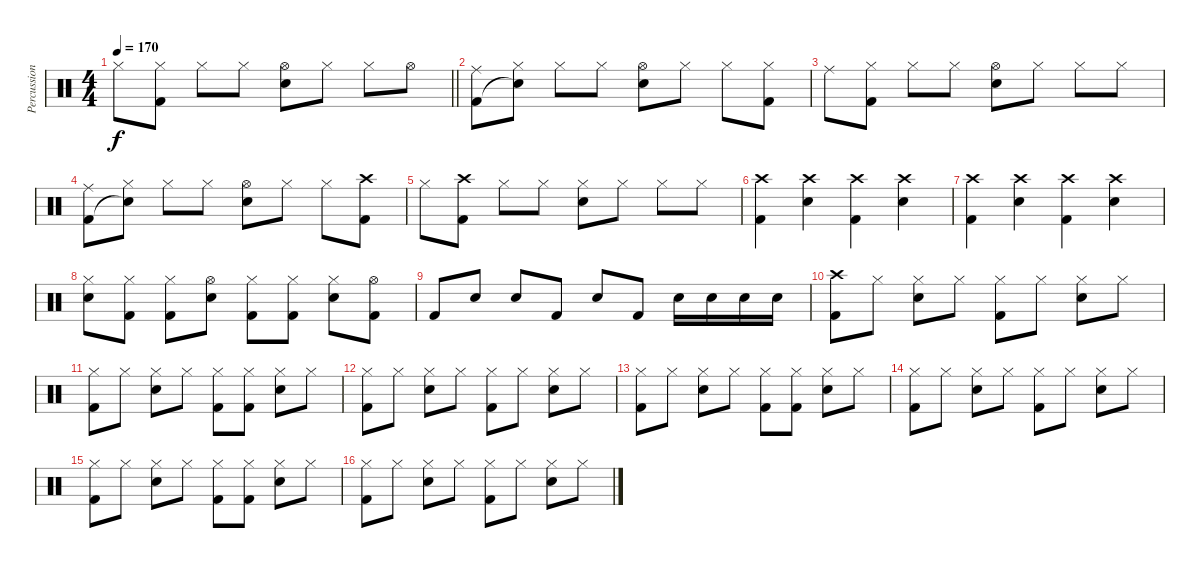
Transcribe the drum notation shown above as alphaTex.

\track ("Percussion" "Percussion") {instrument percussion}
\staff {score}
\articulation defaults
\ts (4 4)
\tempo 170
\clef neutral
\barLineRight lightlight
\ks c "Hi-Hat (closed)".8{dy f}
("Hi-Hat (closed)" "Kick (hit) 2").8 "Hi-Hat (closed)".8 "Hi-Hat (closed)".8 ("Hi-Hat (open)" "Snare (hit) 2").8 "Hi-Hat (closed)".8 "Hi-Hat (closed)".8 "Hi-Hat (open)".8 |
("Ride (middle)" "Kick (hit) 2").8 ("Hi-Hat (closed)" "Snare (hit)"{t}).8 "Hi-Hat (closed)".8 "Hi-Hat (closed)".8 ("Hi-Hat (open)" "Snare (hit) 2").8 "Hi-Hat (closed)".8 "Hi-Hat (closed)".8 ("Hi-Hat (closed)" "Kick (hit) 2").8 |
"Ride (middle)".8 ("Hi-Hat (closed)" "Kick (hit) 2").8 "Hi-Hat (closed)".8 "Hi-Hat (closed)".8 ("Hi-Hat (open)" "Snare (hit) 2").8 "Hi-Hat (closed)".8 "Hi-Hat (closed)".8 "Hi-Hat (closed)".8 |
("Ride (middle)" "Kick (hit) 2").8 ("Hi-Hat (closed)" "Snare (hit)"{t}).8 "Hi-Hat (closed)".8 "Hi-Hat (closed)".8 ("Hi-Hat (open)" "Snare (hit) 2").8 "Hi-Hat (closed)".8 "Hi-Hat (closed)".8 ("Crash high (hit)" "Kick (hit) 2").8 |
"Hi-Hat (closed)".8 ("Crash high (hit)" "Kick (hit) 2").8 "Hi-Hat (closed)".8 "Hi-Hat (closed)".8 ("Hi-Hat (closed)" "Snare (hit) 2").8 "Hi-Hat (closed)".8 "Hi-Hat (closed)".8 "Hi-Hat (closed)".8 |
("Crash high (hit)" "Kick (hit) 2").4 ("Crash high (hit)" "Snare (hit) 2").4 ("Crash high (hit)" "Kick (hit) 2").4 ("Crash high (hit)" "Snare (hit) 2").4 |
("Crash high (hit)" "Kick (hit) 2").4 ("Crash high (hit)" "Snare (hit) 2").4 ("Crash high (hit)" "Kick (hit) 2").4 ("Crash high (hit)" "Snare (hit) 2").4 |
("Snare (hit) 2" "Hi-Hat (closed)").8 ("Kick (hit) 2" "Hi-Hat (closed)").8 ("Kick (hit) 2" "Hi-Hat (closed)").8 ("Snare (hit) 2" "Hi-Hat (open)").8 ("Kick (hit) 2" "Hi-Hat (closed)").8 ("Kick (hit) 2" "Hi-Hat (closed)").8 ("Snare (hit) 2" "Hi-Hat (closed)").8 ("Kick (hit) 2" "Hi-Hat (open)").8 |
"Kick (hit) 2".8 "Snare (hit) 2".8 "Snare (hit) 2".8 "Kick (hit) 2".8 "Snare (hit) 2".8 "Kick (hit) 2".8 "Snare (hit) 2".16 "Snare (hit) 2".16 "Snare (hit) 2".16 "Snare (hit) 2".16 |
("Crash high (hit)" "Kick (hit) 2").8 "Hi-Hat (closed)".8 ("Hi-Hat (closed)" "Snare (hit) 2").8 "Hi-Hat (closed)".8 ("Hi-Hat (closed)" "Kick (hit) 2").8 "Hi-Hat (closed)".8 ("Hi-Hat (closed)" "Snare (hit) 2").8 "Hi-Hat (closed)".8 |
("Hi-Hat (closed)" "Kick (hit) 2").8 "Hi-Hat (closed)".8 ("Hi-Hat (closed)" "Snare (hit) 2").8 "Hi-Hat (closed)".8 ("Hi-Hat (closed)" "Kick (hit) 2").8 ("Hi-Hat (closed)" "Kick (hit) 2").8 ("Hi-Hat (closed)" "Snare (hit) 2").8 "Hi-Hat (closed)".8 |
("Hi-Hat (closed)" "Kick (hit) 2").8 "Hi-Hat (closed)".8 ("Hi-Hat (closed)" "Snare (hit) 2").8 "Hi-Hat (closed)".8 ("Hi-Hat (closed)" "Kick (hit) 2").8 "Hi-Hat (closed)".8 ("Hi-Hat (closed)" "Snare (hit) 2").8 "Hi-Hat (closed)".8 |
("Hi-Hat (closed)" "Kick (hit) 2").8 "Hi-Hat (closed)".8 ("Hi-Hat (closed)" "Snare (hit) 2").8 "Hi-Hat (closed)".8 ("Hi-Hat (closed)" "Kick (hit) 2").8 ("Hi-Hat (closed)" "Kick (hit) 2").8 ("Hi-Hat (closed)" "Snare (hit) 2").8 "Hi-Hat (closed)".8 |
("Hi-Hat (closed)" "Kick (hit) 2").8 "Hi-Hat (closed)".8 ("Hi-Hat (closed)" "Snare (hit) 2").8 "Hi-Hat (closed)".8 ("Hi-Hat (closed)" "Kick (hit) 2").8 "Hi-Hat (closed)".8 ("Hi-Hat (closed)" "Snare (hit) 2").8 "Hi-Hat (closed)".8 |
("Hi-Hat (closed)" "Kick (hit) 2").8 "Hi-Hat (closed)".8 ("Hi-Hat (closed)" "Snare (hit) 2").8 "Hi-Hat (closed)".8 ("Hi-Hat (closed)" "Kick (hit) 2").8 ("Hi-Hat (closed)" "Kick (hit) 2").8 ("Hi-Hat (closed)" "Snare (hit) 2").8 "Hi-Hat (closed)".8 |
("Hi-Hat (closed)" "Kick (hit) 2").8 "Hi-Hat (closed)".8 ("Hi-Hat (closed)" "Snare (hit) 2").8 "Hi-Hat (closed)".8 ("Hi-Hat (closed)" "Kick (hit) 2").8 "Hi-Hat (closed)".8 ("Hi-Hat (closed)" "Snare (hit) 2").8 "Hi-Hat (closed)".8
